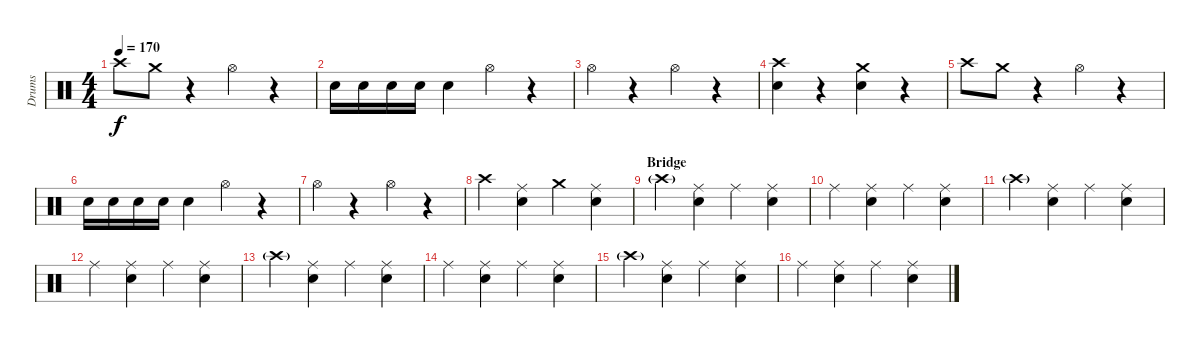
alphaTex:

\track ("Drums" "Drums") {instrument percussion}
\staff {score}
\articulation defaults
\ts (4 4)
\tempo 170
\clef neutral
\ks c "Crash high (hit)".8{dy f} "Crash medium (hit)".8
r.4 "Hi-Hat (open)".4 r.4 |
"Electric Snare (hit)".16 "Electric Snare (hit)".16 "Electric Snare (hit)".16 "Electric Snare (hit)".16 "Electric Snare (hit)".4 "Hi-Hat (open)".4 r.4 |
"Hi-Hat (open)".4 r.4 "Hi-Hat (open)".4 r.4 |
("Crash high (hit)" "Electric Snare (hit)").4 r.4 ("Crash medium (hit)" "Electric Snare (hit)").4 r.4 |
"Crash high (hit)".8 "Crash medium (hit)".8 r.4 "Hi-Hat (open)".4 r.4 |
"Electric Snare (hit)".16 "Electric Snare (hit)".16 "Electric Snare (hit)".16 "Electric Snare (hit)".16 "Electric Snare (hit)".4 "Hi-Hat (open)".4 r.4 |
"Hi-Hat (open)".4 r.4 "Hi-Hat (open)".4 r.4 |
"Crash high (hit)".4 ("Ride (middle)" "Electric Snare (hit)").4 "Crash medium (hit)".4 ("Ride (middle)" "Electric Snare (hit)").4 |
\section ("" "Bridge")
"Crash high (hit)"{g}.4 ("Ride (middle)" "Electric Snare (hit)").4 "Ride (middle)".4 ("Ride (middle)" "Electric Snare (hit)").4 |
"Ride (middle)".4 ("Ride (middle)" "Electric Snare (hit)").4 "Ride (middle)".4 ("Ride (middle)" "Electric Snare (hit)").4 |
"Crash high (hit)"{g}.4 ("Ride (middle)" "Electric Snare (hit)").4 "Ride (middle)".4 ("Ride (middle)" "Electric Snare (hit)").4 |
"Ride (middle)".4 ("Ride (middle)" "Electric Snare (hit)").4 "Ride (middle)".4 ("Ride (middle)" "Electric Snare (hit)").4 |
"Crash high (hit)"{g}.4 ("Ride (middle)" "Electric Snare (hit)").4 "Ride (middle)".4 ("Ride (middle)" "Electric Snare (hit)").4 |
"Ride (middle)".4 ("Ride (middle)" "Electric Snare (hit)").4 "Ride (middle)".4 ("Ride (middle)" "Electric Snare (hit)").4 |
"Crash high (hit)"{g}.4 ("Ride (middle)" "Electric Snare (hit)").4 "Ride (middle)".4 ("Ride (middle)" "Electric Snare (hit)").4 |
"Ride (middle)".4 ("Ride (middle)" "Electric Snare (hit)").4 "Ride (middle)".4 ("Ride (middle)" "Electric Snare (hit)").4
